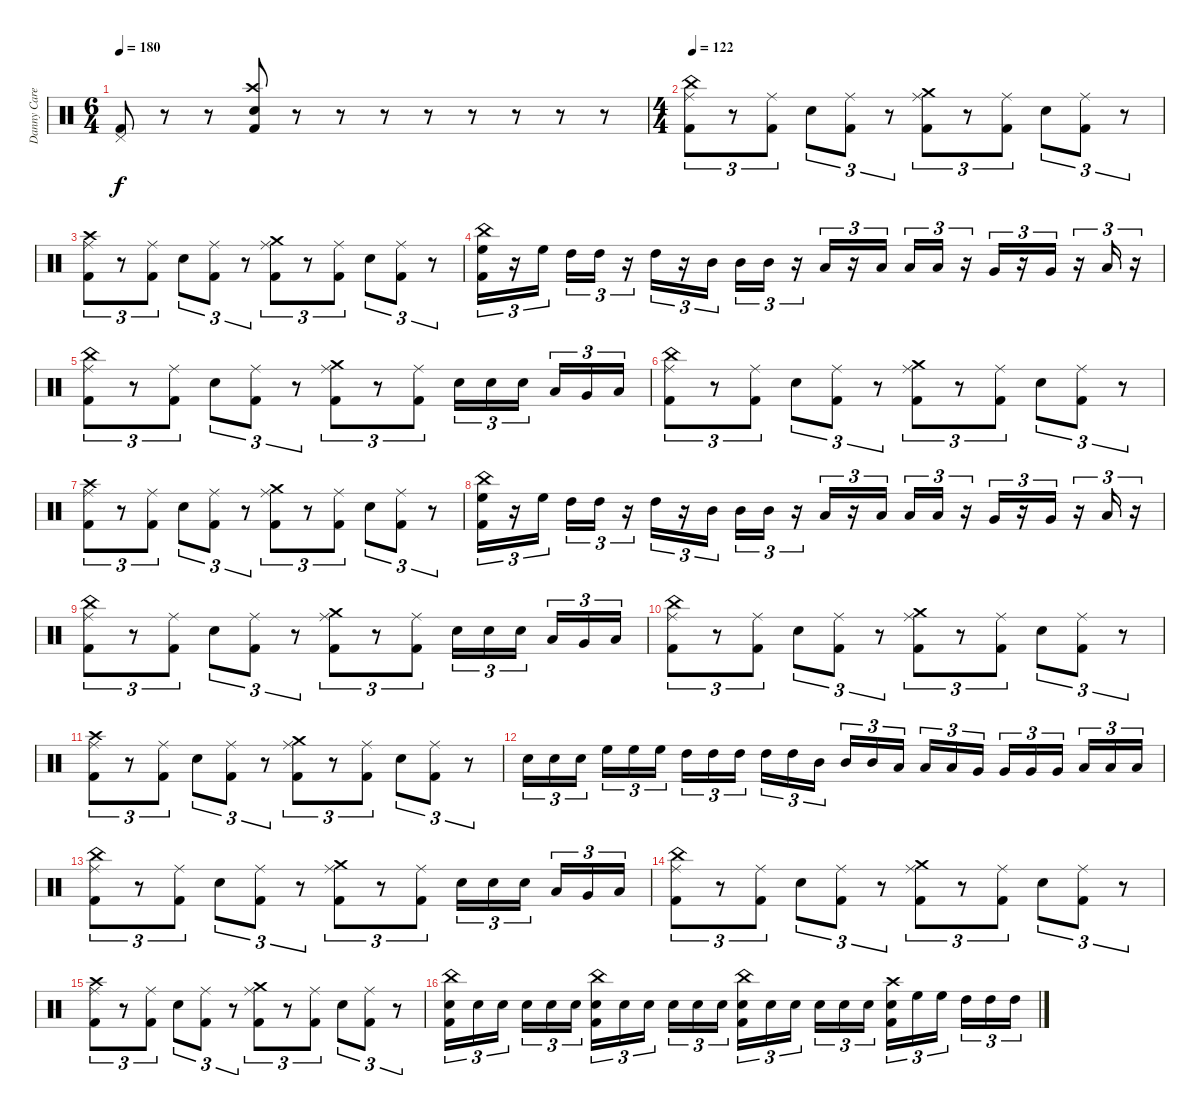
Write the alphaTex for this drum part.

\track ("Danny Carey" "Danny Care") {instrument percussion}
\staff {score}
\articulation defaults
\ts (6 4)
\tempo 180
\clef neutral
\ks c
("Pedal Hi-Hat (hit)" "Kick (hit) 2").8{dy f} r.8 r.8 ("Crash high (hit)" "Electric Snare (hit)" "Kick (hit) 2").8 r.8 r.8 r.8 r.8 r.8 r.8 r.8 r.8 |
\ts (4 4)
\tempo 122
("China (hit)" "Ride (middle)" "Kick (hit) 2").8{tu (3 2)} r.8{tu (3 2)} ("Ride (middle)" "Kick (hit) 2").8{tu (3 2)} "Electric Snare (hit)".8{tu (3 2)} ("Ride (middle)" "Kick (hit) 2").8{tu (3 2)} r.8{tu (3 2)} ("Crash medium (hit)" "Ride (middle)" "Kick (hit) 2").8{tu (3 2)} r.8{tu (3 2)} ("Ride (middle)" "Kick (hit) 2").8{tu (3 2)} "Electric Snare (hit)".8{tu (3 2)} ("Ride (middle)" "Kick (hit) 2").8{tu (3 2)} r.8{tu (3 2)} |
("Crash high (hit)" "Ride (middle)" "Kick (hit) 2").8{tu (3 2)} r.8{tu (3 2)} ("Ride (middle)" "Kick (hit) 2").8{tu (3 2)} "Electric Snare (hit)".8{tu (3 2)} ("Ride (middle)" "Kick (hit) 2").8{tu (3 2)} r.8{tu (3 2)} ("Crash medium (hit)" "Ride (middle)" "Kick (hit) 2").8{tu (3 2)} r.8{tu (3 2)} ("Ride (middle)" "Kick (hit) 2").8{tu (3 2)} "Electric Snare (hit)".8{tu (3 2)} ("Ride (middle)" "Kick (hit) 2").8{tu (3 2)} r.8{tu (3 2)} |
("China (hit)" "High Floor Tom (hit)" "Kick (hit) 2").16{tu (3 2)} r.16{tu (3 2)} "High Floor Tom (hit)".16{tu (3 2) beam splitsecondary} "High Tom (hit)".16{tu (3 2)} "High Tom (hit)".16{tu (3 2)} r.16{tu (3 2)} "High Tom (hit)".16{tu (3 2)} r.16{tu (3 2)} "Mid Tom (hit)".16{tu (3 2) beam splitsecondary} "Mid Tom (hit)".16{tu (3 2)} "Mid Tom (hit)".16{tu (3 2)} r.16{tu (3 2)} "Low Tom (hit)".16{tu (3 2)} r.16{tu (3 2)} "Low Tom (hit)".16{tu (3 2) beam splitsecondary} "Low Tom (hit)".16{tu (3 2)} "Low Tom (hit)".16{tu (3 2)} r.16{tu (3 2)} "Very Low Tom (hit)".16{tu (3 2)} r.16{tu (3 2)} "Very Low Tom (hit)".16{tu (3 2)} r.16{tu (3 2)} "Low Floor Tom (hit)".16{tu (3 2)} r.16{tu (3 2)} |
("China (hit)" "Ride (middle)" "Kick (hit) 2").8{tu (3 2)} r.8{tu (3 2)} ("Ride (middle)" "Kick (hit) 2").8{tu (3 2)} "Electric Snare (hit)".8{tu (3 2)} ("Ride (middle)" "Kick (hit) 2").8{tu (3 2)} r.8{tu (3 2)} ("Crash medium (hit)" "Ride (middle)" "Kick (hit) 2").8{tu (3 2)} r.8{tu (3 2)} ("Ride (middle)" "Kick (hit) 2").8{tu (3 2)} "Electric Snare (hit)".16{tu (3 2)} "Electric Snare (hit)".16{tu (3 2)} "Electric Snare (hit)".16{tu (3 2) beam splitsecondary} "Low Tom (hit)".16{tu (3 2)} "Very Low Tom (hit)".16{tu (3 2)} "Low Floor Tom (hit)".16{tu (3 2)} |
("China (hit)" "Ride (middle)" "Kick (hit) 2").8{tu (3 2)} r.8{tu (3 2)} ("Ride (middle)" "Kick (hit) 2").8{tu (3 2)} "Electric Snare (hit)".8{tu (3 2)} ("Ride (middle)" "Kick (hit) 2").8{tu (3 2)} r.8{tu (3 2)} ("Crash medium (hit)" "Ride (middle)" "Kick (hit) 2").8{tu (3 2)} r.8{tu (3 2)} ("Ride (middle)" "Kick (hit) 2").8{tu (3 2)} "Electric Snare (hit)".8{tu (3 2)} ("Ride (middle)" "Kick (hit) 2").8{tu (3 2)} r.8{tu (3 2)} |
("Crash high (hit)" "Ride (middle)" "Kick (hit) 2").8{tu (3 2)} r.8{tu (3 2)} ("Ride (middle)" "Kick (hit) 2").8{tu (3 2)} "Electric Snare (hit)".8{tu (3 2)} ("Ride (middle)" "Kick (hit) 2").8{tu (3 2)} r.8{tu (3 2)} ("Crash medium (hit)" "Ride (middle)" "Kick (hit) 2").8{tu (3 2)} r.8{tu (3 2)} ("Ride (middle)" "Kick (hit) 2").8{tu (3 2)} "Electric Snare (hit)".8{tu (3 2)} ("Ride (middle)" "Kick (hit) 2").8{tu (3 2)} r.8{tu (3 2)} |
("China (hit)" "High Floor Tom (hit)" "Kick (hit) 2").16{tu (3 2)} r.16{tu (3 2)} "High Floor Tom (hit)".16{tu (3 2) beam splitsecondary} "High Tom (hit)".16{tu (3 2)} "High Tom (hit)".16{tu (3 2)} r.16{tu (3 2)} "High Tom (hit)".16{tu (3 2)} r.16{tu (3 2)} "Mid Tom (hit)".16{tu (3 2) beam splitsecondary} "Mid Tom (hit)".16{tu (3 2)} "Mid Tom (hit)".16{tu (3 2)} r.16{tu (3 2)} "Low Tom (hit)".16{tu (3 2)} r.16{tu (3 2)} "Low Tom (hit)".16{tu (3 2) beam splitsecondary} "Low Tom (hit)".16{tu (3 2)} "Low Tom (hit)".16{tu (3 2)} r.16{tu (3 2)} "Very Low Tom (hit)".16{tu (3 2)} r.16{tu (3 2)} "Very Low Tom (hit)".16{tu (3 2)} r.16{tu (3 2)} "Low Floor Tom (hit)".16{tu (3 2)} r.16{tu (3 2)} |
("China (hit)" "Ride (middle)" "Kick (hit) 2").8{tu (3 2)} r.8{tu (3 2)} ("Ride (middle)" "Kick (hit) 2").8{tu (3 2)} "Electric Snare (hit)".8{tu (3 2)} ("Ride (middle)" "Kick (hit) 2").8{tu (3 2)} r.8{tu (3 2)} ("Crash medium (hit)" "Ride (middle)" "Kick (hit) 2").8{tu (3 2)} r.8{tu (3 2)} ("Ride (middle)" "Kick (hit) 2").8{tu (3 2)} "Electric Snare (hit)".16{tu (3 2)} "Electric Snare (hit)".16{tu (3 2)} "Electric Snare (hit)".16{tu (3 2) beam splitsecondary} "Low Tom (hit)".16{tu (3 2)} "Very Low Tom (hit)".16{tu (3 2)} "Low Floor Tom (hit)".16{tu (3 2)} |
("China (hit)" "Ride (middle)" "Kick (hit) 2").8{tu (3 2)} r.8{tu (3 2)} ("Ride (middle)" "Kick (hit) 2").8{tu (3 2)} "Electric Snare (hit)".8{tu (3 2)} ("Ride (middle)" "Kick (hit) 2").8{tu (3 2)} r.8{tu (3 2)} ("Crash medium (hit)" "Ride (middle)" "Kick (hit) 2").8{tu (3 2)} r.8{tu (3 2)} ("Ride (middle)" "Kick (hit) 2").8{tu (3 2)} "Electric Snare (hit)".8{tu (3 2)} ("Ride (middle)" "Kick (hit) 2").8{tu (3 2)} r.8{tu (3 2)} |
("Crash high (hit)" "Ride (middle)" "Kick (hit) 2").8{tu (3 2)} r.8{tu (3 2)} ("Ride (middle)" "Kick (hit) 2").8{tu (3 2)} "Electric Snare (hit)".8{tu (3 2)} ("Ride (middle)" "Kick (hit) 2").8{tu (3 2)} r.8{tu (3 2)} ("Crash medium (hit)" "Ride (middle)" "Kick (hit) 2").8{tu (3 2)} r.8{tu (3 2)} ("Ride (middle)" "Kick (hit) 2").8{tu (3 2)} "Electric Snare (hit)".8{tu (3 2)} ("Ride (middle)" "Kick (hit) 2").8{tu (3 2)} r.8{tu (3 2)} |
"Electric Snare (hit)".16{tu (3 2)} "Electric Snare (hit)".16{tu (3 2)} "Electric Snare (hit)".16{tu (3 2) beam splitsecondary} "High Floor Tom (hit)".16{tu (3 2)} "High Floor Tom (hit)".16{tu (3 2)} "High Floor Tom (hit)".16{tu (3 2)} "High Tom (hit)".16{tu (3 2)} "High Tom (hit)".16{tu (3 2)} "High Tom (hit)".16{tu (3 2) beam splitsecondary} "High Tom (hit)".16{tu (3 2)} "High Tom (hit)".16{tu (3 2)} "Mid Tom (hit)".16{tu (3 2)} "Mid Tom (hit)".16{tu (3 2)} "Mid Tom (hit)".16{tu (3 2)} "Low Tom (hit)".16{tu (3 2) beam splitsecondary} "Low Tom (hit)".16{tu (3 2)} "Low Tom (hit)".16{tu (3 2)} "Very Low Tom (hit)".16{tu (3 2)} "Very Low Tom (hit)".16{tu (3 2)} "Very Low Tom (hit)".16{tu (3 2)} "Very Low Tom (hit)".16{tu (3 2) beam splitsecondary} "Low Floor Tom (hit)".16{tu (3 2)} "Low Floor Tom (hit)".16{tu (3 2)} "Low Floor Tom (hit)".16{tu (3 2)} |
("China (hit)" "Ride (middle)" "Kick (hit) 2").8{tu (3 2)} r.8{tu (3 2)} ("Ride (middle)" "Kick (hit) 2").8{tu (3 2)} "Electric Snare (hit)".8{tu (3 2)} ("Ride (middle)" "Kick (hit) 2").8{tu (3 2)} r.8{tu (3 2)} ("Crash medium (hit)" "Ride (middle)" "Kick (hit) 2").8{tu (3 2)} r.8{tu (3 2)} ("Ride (middle)" "Kick (hit) 2").8{tu (3 2)} "Electric Snare (hit)".16{tu (3 2)} "Electric Snare (hit)".16{tu (3 2)} "Electric Snare (hit)".16{tu (3 2) beam splitsecondary} "Low Tom (hit)".16{tu (3 2)} "Very Low Tom (hit)".16{tu (3 2)} "Low Floor Tom (hit)".16{tu (3 2)} |
("China (hit)" "Ride (middle)" "Kick (hit) 2").8{tu (3 2)} r.8{tu (3 2)} ("Ride (middle)" "Kick (hit) 2").8{tu (3 2)} "Electric Snare (hit)".8{tu (3 2)} ("Ride (middle)" "Kick (hit) 2").8{tu (3 2)} r.8{tu (3 2)} ("Crash medium (hit)" "Ride (middle)" "Kick (hit) 2").8{tu (3 2)} r.8{tu (3 2)} ("Ride (middle)" "Kick (hit) 2").8{tu (3 2)} "Electric Snare (hit)".8{tu (3 2)} ("Ride (middle)" "Kick (hit) 2").8{tu (3 2)} r.8{tu (3 2)} |
("Crash high (hit)" "Ride (middle)" "Kick (hit) 2").8{tu (3 2)} r.8{tu (3 2)} ("Ride (middle)" "Kick (hit) 2").8{tu (3 2)} "Electric Snare (hit)".8{tu (3 2)} ("Ride (middle)" "Kick (hit) 2").8{tu (3 2)} r.8{tu (3 2)} ("Crash medium (hit)" "Ride (middle)" "Kick (hit) 2").8{tu (3 2)} r.8{tu (3 2)} ("Ride (middle)" "Kick (hit) 2").8{tu (3 2)} "Electric Snare (hit)".8{tu (3 2)} ("Ride (middle)" "Kick (hit) 2").8{tu (3 2)} r.8{tu (3 2)} |
("China (hit)" "Electric Snare (hit)" "Kick (hit) 2").16{tu (3 2)} "Electric Snare (hit)".16{tu (3 2)} "Electric Snare (hit)".16{tu (3 2) beam splitsecondary} "Electric Snare (hit)".16{tu (3 2)} "Electric Snare (hit)".16{tu (3 2)} "Electric Snare (hit)".16{tu (3 2)} ("China (hit)" "Electric Snare (hit)" "Kick (hit) 2").16{tu (3 2)} "Electric Snare (hit)".16{tu (3 2)} "Electric Snare (hit)".16{tu (3 2) beam splitsecondary} "Electric Snare (hit)".16{tu (3 2)} "Electric Snare (hit)".16{tu (3 2)} "Electric Snare (hit)".16{tu (3 2)} ("China (hit)" "Electric Snare (hit)" "Kick (hit) 2").16{tu (3 2)} "Electric Snare (hit)".16{tu (3 2)} "Electric Snare (hit)".16{tu (3 2) beam splitsecondary} "Electric Snare (hit)".16{tu (3 2)} "Electric Snare (hit)".16{tu (3 2)} "Electric Snare (hit)".16{tu (3 2)} ("Crash high (hit)" "Electric Snare (hit)" "Kick (hit) 2").16{tu (3 2)} "High Floor Tom (hit)".16{tu (3 2)} "High Floor Tom (hit)".16{tu (3 2) beam splitsecondary} "High Tom (hit)".16{tu (3 2)} "High Tom (hit)".16{tu (3 2)} "High Tom (hit)".16{tu (3 2)}
